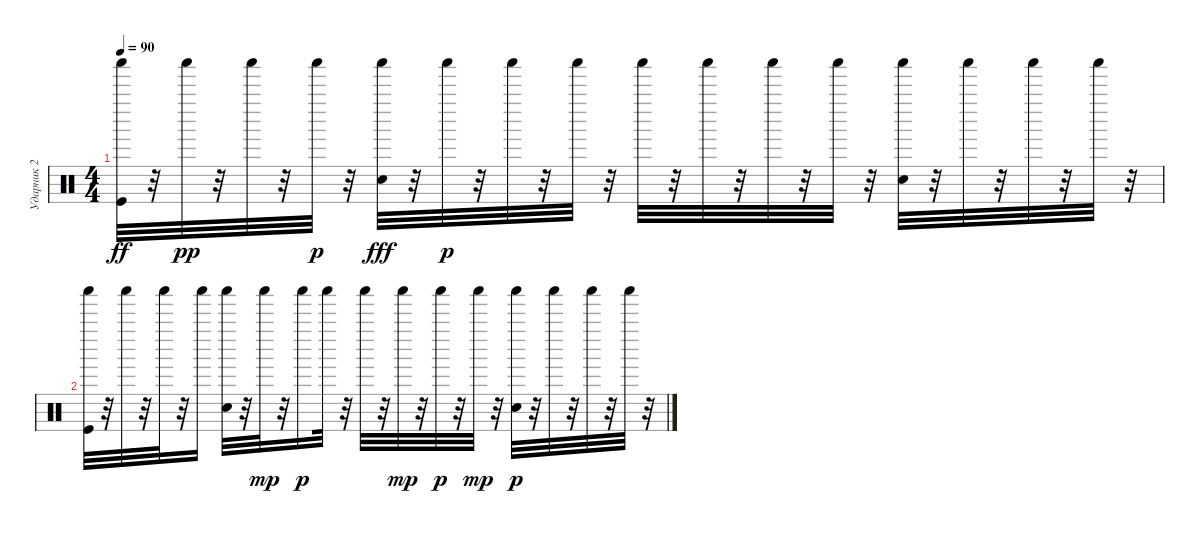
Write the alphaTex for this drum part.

\track ("Ударник 2" "Ударник 2") {instrument percussion}
\staff {score}
\articulation defaults
\ts (4 4)
\tempo 90
\clef neutral
\ks c
("Shaker (hit)" "Kick (hit)").32{dy ff volume 5} r.32 "Shaker (hit)".32{dy pp volume 5} r.32 "Shaker (hit)".32{volume 5} r.32 "Shaker (hit)".32{dy p volume 4} r.32 ("Shaker (hit)" "Electric Snare (hit)").32{dy fff volume 4} r.32 "Shaker (hit)".32{dy p volume 4} r.32 "Shaker (hit)".32{volume 4} r.32 "Shaker (hit)".32{volume 4} r.32 "Shaker (hit)".32{volume 4} r.32 "Shaker (hit)".32{volume 4} r.32 "Shaker (hit)".32{volume 3} r.32 "Shaker (hit)".32{volume 3} r.32 ("Electric Snare (hit)" "Shaker (hit)").32{volume 3} r.32 "Shaker (hit)".32{volume 3} r.32 "Shaker (hit)".32{volume 3} r.32 "Shaker (hit)".32{volume 3} r.32 |
("Kick (hit)" "Shaker (hit)").32{volume 2} r.32 "Shaker (hit)".32{volume 2} r.32 "Shaker (hit)".32{volume 2} r.32 "Shaker (hit)".16{volume 2} ("Electric Snare (hit)" "Shaker (hit)").32{volume 2} r.32 "Shaker (hit)".32{dy mp volume 2} r.32 "Shaker (hit)".16{dy p volume 2} "Shaker (hit)".32{volume 2} r.32 "Shaker (hit)".32{volume 1} r.32 "Shaker (hit)".32{dy mp volume 1} r.32 "Shaker (hit)".32{dy p volume 1} r.32 "Shaker (hit)".32{dy mp volume 1} r.32 ("Electric Snare (hit)" "Shaker (hit)").32{dy p volume 1} r.32 "Shaker (hit)".32{volume 1} r.32 "Shaker (hit)".32{volume 0} r.32 "Shaker (hit)".32{volume 0} r.32
